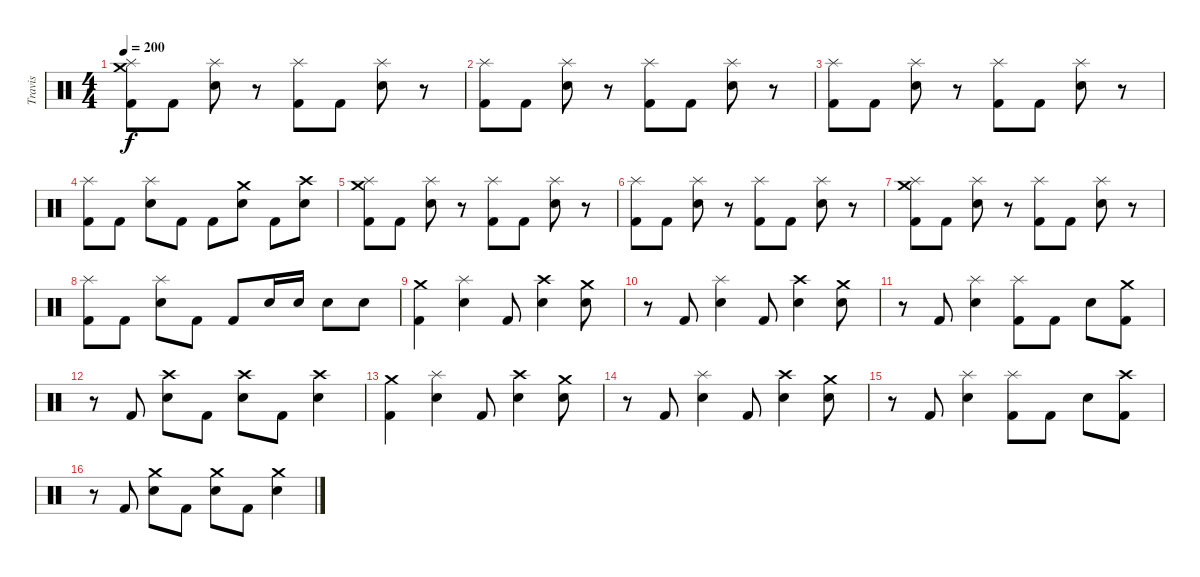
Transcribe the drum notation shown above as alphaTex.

\track ("Travis" "Travis") {instrument percussion}
\staff {score}
\articulation defaults
\ts (4 4)
\tempo 200
\clef neutral
\ks c
("Kick (hit) 2" "Splash (hit)" "Crash medium (hit)").8{dy f} "Kick (hit) 2".8 ("Snare (hit) 2" "Splash (hit)").8 r.8 ("Kick (hit) 2" "Splash (hit)").8 "Kick (hit) 2".8 ("Snare (hit) 2" "Splash (hit)").8 r.8 |
("Kick (hit) 2" "Splash (hit)").8 "Kick (hit) 2".8 ("Snare (hit) 2" "Splash (hit)").8 r.8 ("Kick (hit) 2" "Splash (hit)").8 "Kick (hit) 2".8 ("Snare (hit) 2" "Splash (hit)").8 r.8 |
("Kick (hit) 2" "Splash (hit)").8 "Kick (hit) 2".8 ("Snare (hit) 2" "Splash (hit)").8 r.8 ("Kick (hit) 2" "Splash (hit)").8 "Kick (hit) 2".8 ("Snare (hit) 2" "Splash (hit)").8 r.8 |
("Kick (hit) 2" "Splash (hit)").8 "Kick (hit) 2".8 ("Snare (hit) 2" "Splash (hit)").8 "Kick (hit) 2".8 "Kick (hit) 2".8 ("Snare (hit) 2" "Crash medium (hit)").8 "Kick (hit) 2".8 ("Snare (hit) 2" "Crash high (hit)").8 |
("Kick (hit) 2" "Splash (hit)" "Crash medium (hit)").8 "Kick (hit) 2".8 ("Snare (hit) 2" "Splash (hit)").8 r.8 ("Kick (hit) 2" "Splash (hit)").8 "Kick (hit) 2".8 ("Snare (hit) 2" "Splash (hit)").8 r.8 |
("Kick (hit) 2" "Splash (hit)").8 "Kick (hit) 2".8 ("Snare (hit) 2" "Splash (hit)").8 r.8 ("Kick (hit) 2" "Splash (hit)").8 "Kick (hit) 2".8 ("Snare (hit) 2" "Splash (hit)").8 r.8 |
("Kick (hit) 2" "Splash (hit)" "Crash medium (hit)").8 "Kick (hit) 2".8 ("Snare (hit) 2" "Splash (hit)").8 r.8 ("Kick (hit) 2" "Splash (hit)").8 "Kick (hit) 2".8 ("Snare (hit) 2" "Splash (hit)").8 r.8 |
("Kick (hit) 2" "Splash (hit)").8 "Kick (hit) 2".8 ("Snare (hit) 2" "Splash (hit)").8 "Kick (hit) 2".8 "Kick (hit) 2".8 "Snare (hit) 2".16 "Snare (hit) 2".16 "Snare (hit) 2".8 "Snare (hit) 2".8 |
("Kick (hit) 2" "Crash medium (hit)").4 ("Snare (hit) 2" "Splash (hit)").4 "Kick (hit) 2".8 ("Snare (hit) 2" "Crash high (hit)").4 ("Snare (hit) 2" "Crash medium (hit)").8 |
r.8 "Kick (hit) 2".8 ("Snare (hit) 2" "Splash (hit)").4 "Kick (hit) 2".8 ("Snare (hit) 2" "Crash high (hit)").4 ("Snare (hit) 2" "Crash medium (hit)").8 |
r.8 "Kick (hit) 2".8 ("Snare (hit) 2" "Splash (hit)").4 ("Kick (hit) 2" "Splash (hit)").8 "Kick (hit) 2".8 "Snare (hit) 2".8 ("Kick (hit) 2" "Crash medium (hit)").8 |
r.8 "Kick (hit) 2".8 ("Snare (hit) 2" "Crash high (hit)").8 "Kick (hit) 2".8 ("Snare (hit) 2" "Crash high (hit)").8 "Kick (hit) 2".8 ("Snare (hit) 2" "Crash high (hit)").4 |
("Kick (hit) 2" "Crash medium (hit)").4 ("Snare (hit) 2" "Splash (hit)").4 "Kick (hit) 2".8 ("Snare (hit) 2" "Crash high (hit)").4 ("Snare (hit) 2" "Crash medium (hit)").8 |
r.8 "Kick (hit) 2".8 ("Snare (hit) 2" "Splash (hit)").4 "Kick (hit) 2".8 ("Snare (hit) 2" "Crash high (hit)").4 ("Snare (hit) 2" "Crash medium (hit)").8 |
r.8 "Kick (hit) 2".8 ("Snare (hit) 2" "Splash (hit)").4 ("Kick (hit) 2" "Splash (hit)").8 "Kick (hit) 2".8 "Snare (hit) 2".8 ("Kick (hit) 2" "Crash high (hit)").8 |
r.8 "Kick (hit) 2".8 ("Snare (hit) 2" "Crash medium (hit)").8 "Kick (hit) 2".8 ("Snare (hit) 2" "Crash medium (hit)").8 "Kick (hit) 2".8 ("Snare (hit) 2" "Crash medium (hit)").4
